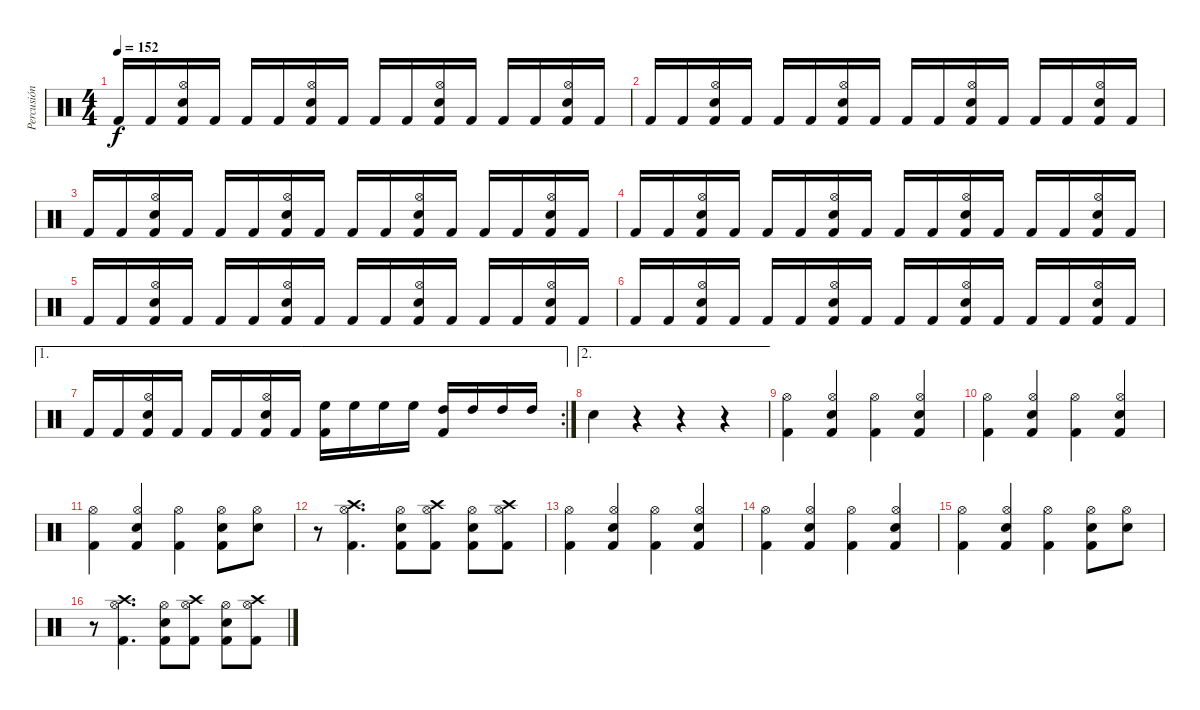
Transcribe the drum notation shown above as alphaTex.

\track ("Percusión" "Percusión") {instrument percussion}
\staff {score}
\articulation defaults
\ts (4 4)
\tempo 152
\clef neutral
\ks c "Kick (hit) 2".16{dy f} "Kick (hit) 2".16
("Hi-Hat (open)" "Snare (hit) 2" "Kick (hit) 2").16 "Kick (hit) 2".16 "Kick (hit) 2".16 "Kick (hit) 2".16 ("Hi-Hat (open)" "Snare (hit) 2" "Kick (hit) 2").16 "Kick (hit) 2".16 "Kick (hit) 2".16 "Kick (hit) 2".16 ("Hi-Hat (open)" "Snare (hit) 2" "Kick (hit) 2").16 "Kick (hit) 2".16 "Kick (hit) 2".16 "Kick (hit) 2".16 ("Hi-Hat (open)" "Snare (hit) 2" "Kick (hit) 2").16 "Kick (hit) 2".16 |
"Kick (hit) 2".16 "Kick (hit) 2".16 ("Hi-Hat (open)" "Snare (hit) 2" "Kick (hit) 2").16 "Kick (hit) 2".16 "Kick (hit) 2".16 "Kick (hit) 2".16 ("Hi-Hat (open)" "Snare (hit) 2" "Kick (hit) 2").16 "Kick (hit) 2".16 "Kick (hit) 2".16 "Kick (hit) 2".16 ("Hi-Hat (open)" "Snare (hit) 2" "Kick (hit) 2").16 "Kick (hit) 2".16 "Kick (hit) 2".16 "Kick (hit) 2".16 ("Hi-Hat (open)" "Snare (hit) 2" "Kick (hit) 2").16 "Kick (hit) 2".16 |
"Kick (hit) 2".16 "Kick (hit) 2".16 ("Hi-Hat (open)" "Snare (hit) 2" "Kick (hit) 2").16 "Kick (hit) 2".16 "Kick (hit) 2".16 "Kick (hit) 2".16 ("Hi-Hat (open)" "Snare (hit) 2" "Kick (hit) 2").16 "Kick (hit) 2".16 "Kick (hit) 2".16 "Kick (hit) 2".16 ("Hi-Hat (open)" "Snare (hit) 2" "Kick (hit) 2").16 "Kick (hit) 2".16 "Kick (hit) 2".16 "Kick (hit) 2".16 ("Hi-Hat (open)" "Snare (hit) 2" "Kick (hit) 2").16 "Kick (hit) 2".16 |
"Kick (hit) 2".16 "Kick (hit) 2".16 ("Hi-Hat (open)" "Snare (hit) 2" "Kick (hit) 2").16 "Kick (hit) 2".16 "Kick (hit) 2".16 "Kick (hit) 2".16 ("Hi-Hat (open)" "Snare (hit) 2" "Kick (hit) 2").16 "Kick (hit) 2".16 "Kick (hit) 2".16 "Kick (hit) 2".16 ("Hi-Hat (open)" "Snare (hit) 2" "Kick (hit) 2").16 "Kick (hit) 2".16 "Kick (hit) 2".16 "Kick (hit) 2".16 ("Hi-Hat (open)" "Snare (hit) 2" "Kick (hit) 2").16 "Kick (hit) 2".16 |
"Kick (hit) 2".16 "Kick (hit) 2".16 ("Hi-Hat (open)" "Snare (hit) 2" "Kick (hit) 2").16 "Kick (hit) 2".16 "Kick (hit) 2".16 "Kick (hit) 2".16 ("Hi-Hat (open)" "Snare (hit) 2" "Kick (hit) 2").16 "Kick (hit) 2".16 "Kick (hit) 2".16 "Kick (hit) 2".16 ("Hi-Hat (open)" "Snare (hit) 2" "Kick (hit) 2").16 "Kick (hit) 2".16 "Kick (hit) 2".16 "Kick (hit) 2".16 ("Hi-Hat (open)" "Snare (hit) 2" "Kick (hit) 2").16 "Kick (hit) 2".16 |
"Kick (hit) 2".16 "Kick (hit) 2".16 ("Hi-Hat (open)" "Snare (hit) 2" "Kick (hit) 2").16 "Kick (hit) 2".16 "Kick (hit) 2".16 "Kick (hit) 2".16 ("Hi-Hat (open)" "Snare (hit) 2" "Kick (hit) 2").16 "Kick (hit) 2".16 "Kick (hit) 2".16 "Kick (hit) 2".16 ("Hi-Hat (open)" "Snare (hit) 2" "Kick (hit) 2").16 "Kick (hit) 2".16 "Kick (hit) 2".16 "Kick (hit) 2".16 ("Hi-Hat (open)" "Snare (hit) 2" "Kick (hit) 2").16 "Kick (hit) 2".16 |
\ae 1
\rc 2 "Kick (hit) 2".16 "Kick (hit) 2".16
("Hi-Hat (open)" "Snare (hit) 2" "Kick (hit) 2").16 "Kick (hit) 2".16 "Kick (hit) 2".16 "Kick (hit) 2".16 ("Hi-Hat (open)" "Snare (hit) 2" "Kick (hit) 2").16 "Kick (hit) 2".16 ("Kick (hit) 2" "High Floor Tom (hit)").16 "High Floor Tom (hit)".16 "High Floor Tom (hit)".16 "High Floor Tom (hit)".16 ("Kick (hit) 2" "High Tom (hit)").16 "High Tom (hit)".16 "High Tom (hit)".16 "High Tom (hit)".16 |
\ae 2 "Snare (hit) 2".4
r.4 r.4 r.4 |
("Hi-Hat (open)" "Kick (hit) 2").4 ("Hi-Hat (open)" "Snare (hit) 2" "Kick (hit) 2").4 ("Hi-Hat (open)" "Kick (hit) 2").4 ("Hi-Hat (open)" "Snare (hit) 2" "Kick (hit) 2").4 |
("Hi-Hat (open)" "Kick (hit) 2").4 ("Hi-Hat (open)" "Snare (hit) 2" "Kick (hit) 2").4 ("Hi-Hat (open)" "Kick (hit) 2").4 ("Hi-Hat (open)" "Snare (hit) 2" "Kick (hit) 2").4 |
("Hi-Hat (open)" "Kick (hit) 2").4 ("Hi-Hat (open)" "Snare (hit) 2" "Kick (hit) 2").4 ("Hi-Hat (open)" "Kick (hit) 2").4 ("Hi-Hat (open)" "Snare (hit) 2" "Kick (hit) 2").8 ("Hi-Hat (open)" "Snare (hit) 2").8 |
r.8 ("Crash high (hit)" "Hi-Hat (open)" "Kick (hit) 2").4{d} ("Hi-Hat (open)" "Snare (hit) 2" "Kick (hit) 2").8 ("Crash high (hit)" "Hi-Hat (open)" "Kick (hit) 2").8 ("Hi-Hat (open)" "Snare (hit) 2" "Kick (hit) 2").8 ("Crash high (hit)" "Hi-Hat (open)" "Kick (hit) 2").8 |
("Hi-Hat (open)" "Kick (hit) 2").4 ("Hi-Hat (open)" "Snare (hit) 2" "Kick (hit) 2").4 ("Hi-Hat (open)" "Kick (hit) 2").4 ("Hi-Hat (open)" "Snare (hit) 2" "Kick (hit) 2").4 |
("Hi-Hat (open)" "Kick (hit) 2").4 ("Hi-Hat (open)" "Snare (hit) 2" "Kick (hit) 2").4 ("Hi-Hat (open)" "Kick (hit) 2").4 ("Hi-Hat (open)" "Snare (hit) 2" "Kick (hit) 2").4 |
("Hi-Hat (open)" "Kick (hit) 2").4 ("Hi-Hat (open)" "Snare (hit) 2" "Kick (hit) 2").4 ("Hi-Hat (open)" "Kick (hit) 2").4 ("Hi-Hat (open)" "Snare (hit) 2" "Kick (hit) 2").8 ("Hi-Hat (open)" "Snare (hit) 2").8 |
r.8 ("Crash high (hit)" "Hi-Hat (open)" "Kick (hit) 2").4{d} ("Hi-Hat (open)" "Snare (hit) 2" "Kick (hit) 2").8 ("Crash high (hit)" "Hi-Hat (open)" "Kick (hit) 2").8 ("Hi-Hat (open)" "Snare (hit) 2" "Kick (hit) 2").8 ("Crash high (hit)" "Hi-Hat (open)" "Kick (hit) 2").8
